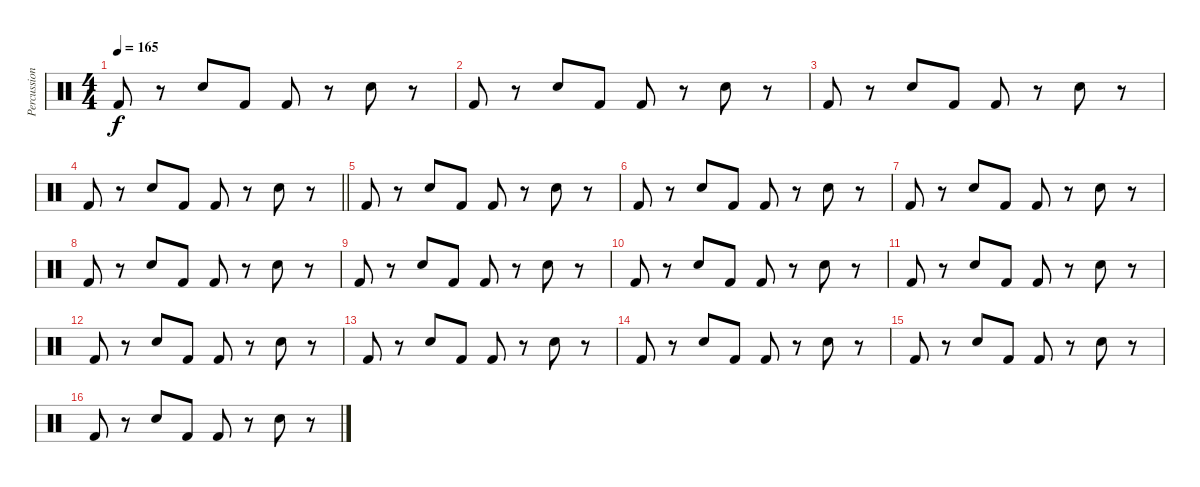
\track ("Percussion" "Percussion") {instrument percussion}
\staff {score}
\articulation defaults
\ts (4 4)
\tempo 165
\clef neutral
\ks c "Kick (hit) 2".8{dy f}
r.8 "Snare (hit) 2".8 "Kick (hit) 2".8 "Kick (hit) 2".8 r.8 "Snare (hit) 2".8 r.8 |
"Kick (hit) 2".8 r.8 "Snare (hit) 2".8 "Kick (hit) 2".8 "Kick (hit) 2".8 r.8 "Snare (hit) 2".8 r.8 |
"Kick (hit) 2".8 r.8 "Snare (hit) 2".8 "Kick (hit) 2".8 "Kick (hit) 2".8 r.8 "Snare (hit) 2".8 r.8 |
\barLineRight lightlight "Kick (hit) 2".8
r.8 "Snare (hit) 2".8 "Kick (hit) 2".8 "Kick (hit) 2".8 r.8 "Snare (hit) 2".8 r.8 |
"Kick (hit) 2".8 r.8 "Snare (hit) 2".8 "Kick (hit) 2".8 "Kick (hit) 2".8 r.8 "Snare (hit) 2".8 r.8 |
"Kick (hit) 2".8 r.8 "Snare (hit) 2".8 "Kick (hit) 2".8 "Kick (hit) 2".8 r.8 "Snare (hit) 2".8 r.8 |
"Kick (hit) 2".8 r.8 "Snare (hit) 2".8 "Kick (hit) 2".8 "Kick (hit) 2".8 r.8 "Snare (hit) 2".8 r.8 |
"Kick (hit) 2".8 r.8 "Snare (hit) 2".8 "Kick (hit) 2".8 "Kick (hit) 2".8 r.8 "Snare (hit) 2".8 r.8 |
"Kick (hit) 2".8 r.8 "Snare (hit) 2".8 "Kick (hit) 2".8 "Kick (hit) 2".8 r.8 "Snare (hit) 2".8 r.8 |
"Kick (hit) 2".8 r.8 "Snare (hit) 2".8 "Kick (hit) 2".8 "Kick (hit) 2".8 r.8 "Snare (hit) 2".8 r.8 |
"Kick (hit) 2".8 r.8 "Snare (hit) 2".8 "Kick (hit) 2".8 "Kick (hit) 2".8 r.8 "Snare (hit) 2".8 r.8 |
"Kick (hit) 2".8 r.8 "Snare (hit) 2".8 "Kick (hit) 2".8 "Kick (hit) 2".8 r.8 "Snare (hit) 2".8 r.8 |
"Kick (hit) 2".8 r.8 "Snare (hit) 2".8 "Kick (hit) 2".8 "Kick (hit) 2".8 r.8 "Snare (hit) 2".8 r.8 |
"Kick (hit) 2".8 r.8 "Snare (hit) 2".8 "Kick (hit) 2".8 "Kick (hit) 2".8 r.8 "Snare (hit) 2".8 r.8 |
"Kick (hit) 2".8 r.8 "Snare (hit) 2".8 "Kick (hit) 2".8 "Kick (hit) 2".8 r.8 "Snare (hit) 2".8 r.8 |
"Kick (hit) 2".8 r.8 "Snare (hit) 2".8 "Kick (hit) 2".8 "Kick (hit) 2".8 r.8 "Snare (hit) 2".8 r.8
